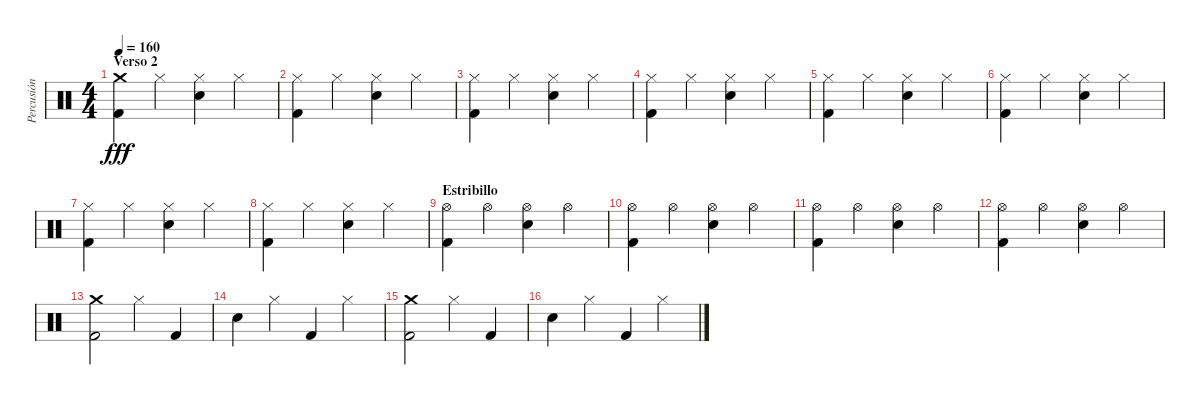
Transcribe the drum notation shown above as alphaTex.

\track ("Percusión" "Percusión") {instrument percussion}
\staff {score}
\articulation defaults
\ts (4 4)
\section ("" "Verso 2")
\tempo 160
\clef neutral
\ks c
("Crash medium (hit)" "Kick (hit) 2").4{dy fff} "Hi-Hat (closed)".4 ("Hi-Hat (closed)" "Snare (hit) 2").4 "Hi-Hat (closed)".4 |
("Hi-Hat (closed)" "Kick (hit) 2").4 "Hi-Hat (closed)".4 ("Hi-Hat (closed)" "Snare (hit) 2").4 "Hi-Hat (closed)".4 |
("Hi-Hat (closed)" "Kick (hit) 2").4 "Hi-Hat (closed)".4 ("Hi-Hat (closed)" "Snare (hit) 2").4 "Hi-Hat (closed)".4 |
("Hi-Hat (closed)" "Kick (hit) 2").4 "Hi-Hat (closed)".4 ("Hi-Hat (closed)" "Snare (hit) 2").4 "Hi-Hat (closed)".4 |
("Hi-Hat (closed)" "Kick (hit) 2").4 "Hi-Hat (closed)".4 ("Hi-Hat (closed)" "Snare (hit) 2").4 "Hi-Hat (closed)".4 |
("Hi-Hat (closed)" "Kick (hit) 2").4 "Hi-Hat (closed)".4 ("Hi-Hat (closed)" "Snare (hit) 2").4 "Hi-Hat (closed)".4 |
("Hi-Hat (closed)" "Kick (hit) 2").4 "Hi-Hat (closed)".4 ("Hi-Hat (closed)" "Snare (hit) 2").4 "Hi-Hat (closed)".4 |
("Hi-Hat (closed)" "Kick (hit) 2").4 "Hi-Hat (closed)".4 ("Hi-Hat (closed)" "Snare (hit) 2").4 "Hi-Hat (closed)".4 |
\section ("" "Estribillo")
("Hi-Hat (open)" "Kick (hit) 2").4 "Hi-Hat (open)".4 ("Hi-Hat (open)" "Snare (hit) 2").4 "Hi-Hat (open)".4 |
("Hi-Hat (open)" "Kick (hit) 2").4 "Hi-Hat (open)".4 ("Hi-Hat (open)" "Snare (hit) 2").4 "Hi-Hat (open)".4 |
("Hi-Hat (open)" "Kick (hit) 2").4 "Hi-Hat (open)".4 ("Hi-Hat (open)" "Snare (hit) 2").4 "Hi-Hat (open)".4 |
("Hi-Hat (open)" "Kick (hit) 2").4 "Hi-Hat (open)".4 ("Hi-Hat (open)" "Snare (hit) 2").4 "Hi-Hat (open)".4 |
("Crash medium (hit)" "Kick (hit) 2").2 "Hi-Hat (closed)".4 "Kick (hit) 2".4 |
"Snare (hit) 2".4 "Hi-Hat (closed)".4 "Kick (hit) 2".4 "Hi-Hat (closed)".4 |
("Crash medium (hit)" "Kick (hit) 2").2 "Hi-Hat (closed)".4 "Kick (hit) 2".4 |
"Snare (hit) 2".4 "Hi-Hat (closed)".4 "Kick (hit) 2".4 "Hi-Hat (closed)".4
